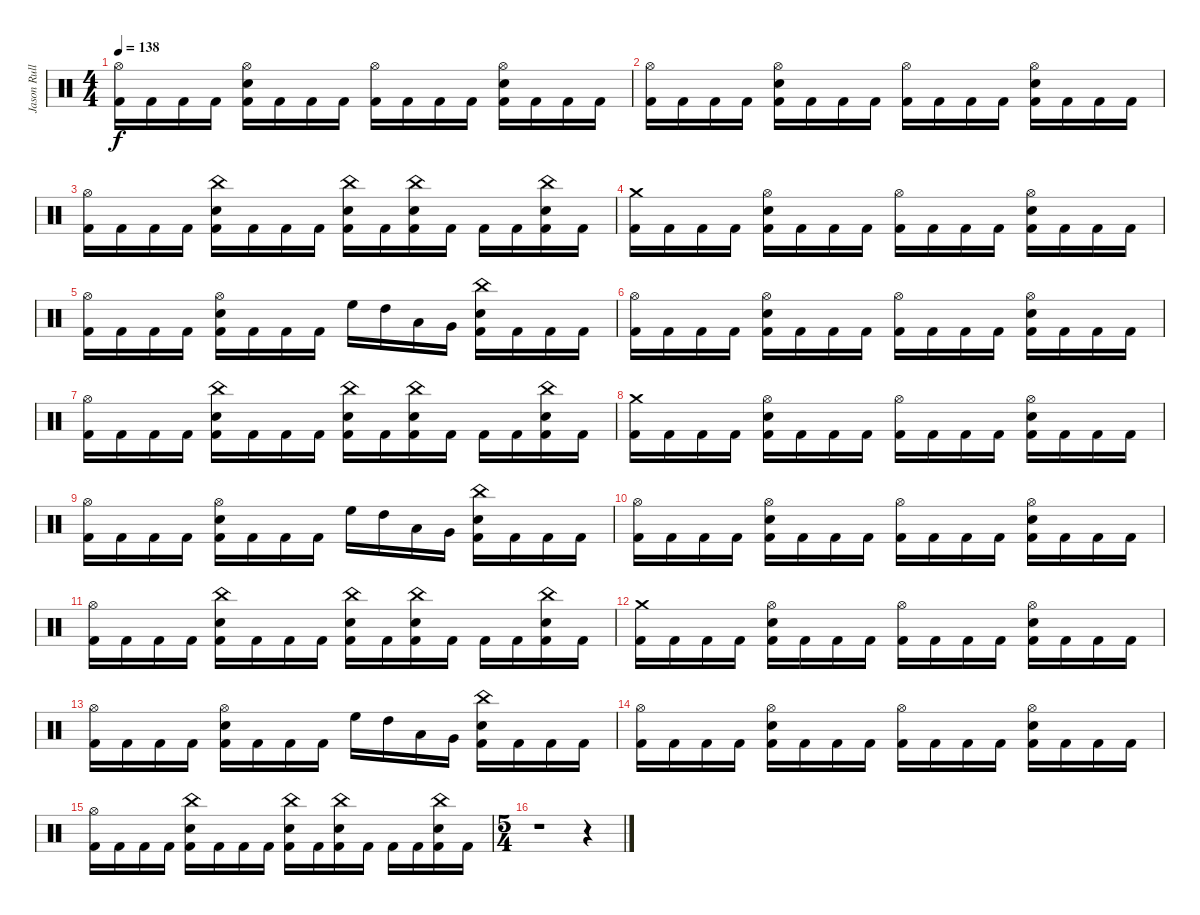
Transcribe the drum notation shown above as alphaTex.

\track ("Jason Rullo" "Jason Rull") {instrument percussion}
\staff {score}
\articulation defaults
\ts (4 4)
\tempo 138
\clef neutral
\ks c
("Hi-Hat (open)" "Kick (hit) 2").16{dy f} "Kick (hit) 2".16 "Kick (hit) 2".16 "Kick (hit) 2".16 ("Hi-Hat (open)" "Electric Snare (hit)" "Kick (hit) 2").16 "Kick (hit) 2".16 "Kick (hit) 2".16 "Kick (hit) 2".16 ("Hi-Hat (open)" "Kick (hit) 2").16 "Kick (hit) 2".16 "Kick (hit) 2".16 "Kick (hit) 2".16 ("Hi-Hat (open)" "Electric Snare (hit)" "Kick (hit) 2").16 "Kick (hit) 2".16 "Kick (hit) 2".16 "Kick (hit) 2".16 |
("Hi-Hat (open)" "Kick (hit) 2").16 "Kick (hit) 2".16 "Kick (hit) 2".16 "Kick (hit) 2".16 ("Hi-Hat (open)" "Electric Snare (hit)" "Kick (hit) 2").16 "Kick (hit) 2".16 "Kick (hit) 2".16 "Kick (hit) 2".16 ("Hi-Hat (open)" "Kick (hit) 2").16 "Kick (hit) 2".16 "Kick (hit) 2".16 "Kick (hit) 2".16 ("Hi-Hat (open)" "Electric Snare (hit)" "Kick (hit) 2").16 "Kick (hit) 2".16 "Kick (hit) 2".16 "Kick (hit) 2".16 |
("Hi-Hat (open)" "Kick (hit) 2").16 "Kick (hit) 2".16 "Kick (hit) 2".16 "Kick (hit) 2".16 ("China (hit)" "Electric Snare (hit)" "Kick (hit) 2").16 "Kick (hit) 2".16 "Kick (hit) 2".16 "Kick (hit) 2".16 ("China (hit)" "Electric Snare (hit)" "Kick (hit) 2").16 "Kick (hit) 2".16 ("China (hit)" "Electric Snare (hit)" "Kick (hit) 2").16 "Kick (hit) 2".16 "Kick (hit) 2".16 "Kick (hit) 2".16 ("China (hit)" "Electric Snare (hit)" "Kick (hit) 2").16 "Kick (hit) 2".16 |
("Kick (hit) 2" "Crash medium (hit)").16 "Kick (hit) 2".16 "Kick (hit) 2".16 "Kick (hit) 2".16 ("Hi-Hat (open)" "Electric Snare (hit)" "Kick (hit) 2").16 "Kick (hit) 2".16 "Kick (hit) 2".16 "Kick (hit) 2".16 ("Hi-Hat (open)" "Kick (hit) 2").16 "Kick (hit) 2".16 "Kick (hit) 2".16 "Kick (hit) 2".16 ("Hi-Hat (open)" "Electric Snare (hit)" "Kick (hit) 2").16 "Kick (hit) 2".16 "Kick (hit) 2".16 "Kick (hit) 2".16 |
("Hi-Hat (open)" "Kick (hit) 2").16 "Kick (hit) 2".16 "Kick (hit) 2".16 "Kick (hit) 2".16 ("Hi-Hat (open)" "Electric Snare (hit)" "Kick (hit) 2").16 "Kick (hit) 2".16 "Kick (hit) 2".16 "Kick (hit) 2".16 "High Floor Tom (hit)".16 "High Tom (hit)".16 "Low Tom (hit)".16 "Very Low Tom (hit)".16 ("China (hit)" "Electric Snare (hit)" "Kick (hit) 2").16 "Kick (hit) 2".16 "Kick (hit) 2".16 "Kick (hit) 2".16 |
("Hi-Hat (open)" "Kick (hit) 2").16 "Kick (hit) 2".16 "Kick (hit) 2".16 "Kick (hit) 2".16 ("Hi-Hat (open)" "Electric Snare (hit)" "Kick (hit) 2").16 "Kick (hit) 2".16 "Kick (hit) 2".16 "Kick (hit) 2".16 ("Hi-Hat (open)" "Kick (hit) 2").16 "Kick (hit) 2".16 "Kick (hit) 2".16 "Kick (hit) 2".16 ("Hi-Hat (open)" "Electric Snare (hit)" "Kick (hit) 2").16 "Kick (hit) 2".16 "Kick (hit) 2".16 "Kick (hit) 2".16 |
("Hi-Hat (open)" "Kick (hit) 2").16 "Kick (hit) 2".16 "Kick (hit) 2".16 "Kick (hit) 2".16 ("China (hit)" "Electric Snare (hit)" "Kick (hit) 2").16 "Kick (hit) 2".16 "Kick (hit) 2".16 "Kick (hit) 2".16 ("China (hit)" "Electric Snare (hit)" "Kick (hit) 2").16 "Kick (hit) 2".16 ("China (hit)" "Electric Snare (hit)" "Kick (hit) 2").16 "Kick (hit) 2".16 "Kick (hit) 2".16 "Kick (hit) 2".16 ("China (hit)" "Electric Snare (hit)" "Kick (hit) 2").16 "Kick (hit) 2".16 |
("Kick (hit) 2" "Crash medium (hit)").16 "Kick (hit) 2".16 "Kick (hit) 2".16 "Kick (hit) 2".16 ("Hi-Hat (open)" "Electric Snare (hit)" "Kick (hit) 2").16 "Kick (hit) 2".16 "Kick (hit) 2".16 "Kick (hit) 2".16 ("Hi-Hat (open)" "Kick (hit) 2").16 "Kick (hit) 2".16 "Kick (hit) 2".16 "Kick (hit) 2".16 ("Hi-Hat (open)" "Electric Snare (hit)" "Kick (hit) 2").16 "Kick (hit) 2".16 "Kick (hit) 2".16 "Kick (hit) 2".16 |
("Hi-Hat (open)" "Kick (hit) 2").16 "Kick (hit) 2".16 "Kick (hit) 2".16 "Kick (hit) 2".16 ("Hi-Hat (open)" "Electric Snare (hit)" "Kick (hit) 2").16 "Kick (hit) 2".16 "Kick (hit) 2".16 "Kick (hit) 2".16 "High Floor Tom (hit)".16 "High Tom (hit)".16 "Low Tom (hit)".16 "Very Low Tom (hit)".16 ("China (hit)" "Electric Snare (hit)" "Kick (hit) 2").16 "Kick (hit) 2".16 "Kick (hit) 2".16 "Kick (hit) 2".16 |
("Hi-Hat (open)" "Kick (hit) 2").16 "Kick (hit) 2".16 "Kick (hit) 2".16 "Kick (hit) 2".16 ("Hi-Hat (open)" "Electric Snare (hit)" "Kick (hit) 2").16 "Kick (hit) 2".16 "Kick (hit) 2".16 "Kick (hit) 2".16 ("Hi-Hat (open)" "Kick (hit) 2").16 "Kick (hit) 2".16 "Kick (hit) 2".16 "Kick (hit) 2".16 ("Hi-Hat (open)" "Electric Snare (hit)" "Kick (hit) 2").16 "Kick (hit) 2".16 "Kick (hit) 2".16 "Kick (hit) 2".16 |
("Hi-Hat (open)" "Kick (hit) 2").16 "Kick (hit) 2".16 "Kick (hit) 2".16 "Kick (hit) 2".16 ("China (hit)" "Electric Snare (hit)" "Kick (hit) 2").16 "Kick (hit) 2".16 "Kick (hit) 2".16 "Kick (hit) 2".16 ("China (hit)" "Electric Snare (hit)" "Kick (hit) 2").16 "Kick (hit) 2".16 ("China (hit)" "Electric Snare (hit)" "Kick (hit) 2").16 "Kick (hit) 2".16 "Kick (hit) 2".16 "Kick (hit) 2".16 ("China (hit)" "Electric Snare (hit)" "Kick (hit) 2").16 "Kick (hit) 2".16 |
("Kick (hit) 2" "Crash medium (hit)").16{volume 16} "Kick (hit) 2".16{volume 16} "Kick (hit) 2".16{volume 15} "Kick (hit) 2".16{volume 15} ("Hi-Hat (open)" "Electric Snare (hit)" "Kick (hit) 2").16{volume 15} "Kick (hit) 2".16{volume 15} "Kick (hit) 2".16{volume 14} "Kick (hit) 2".16{volume 14} ("Hi-Hat (open)" "Kick (hit) 2").16{volume 14} "Kick (hit) 2".16{volume 14} "Kick (hit) 2".16{volume 14} "Kick (hit) 2".16{volume 13} ("Hi-Hat (open)" "Electric Snare (hit)" "Kick (hit) 2").16{volume 13} "Kick (hit) 2".16{volume 13} "Kick (hit) 2".16{volume 12} "Kick (hit) 2".16{volume 12} |
("Hi-Hat (open)" "Kick (hit) 2").16{volume 12} "Kick (hit) 2".16{volume 12} "Kick (hit) 2".16{volume 12} "Kick (hit) 2".16{volume 11} ("Hi-Hat (open)" "Electric Snare (hit)" "Kick (hit) 2").16{volume 11} "Kick (hit) 2".16{volume 11} "Kick (hit) 2".16{volume 10} "Kick (hit) 2".16{volume 10} "High Floor Tom (hit)".16{volume 10} "High Tom (hit)".16{volume 10} "Low Tom (hit)".16{volume 10} "Very Low Tom (hit)".16{volume 9} ("China (hit)" "Electric Snare (hit)" "Kick (hit) 2").16{volume 9} "Kick (hit) 2".16{volume 9} "Kick (hit) 2".16{volume 8} "Kick (hit) 2".16{volume 8} |
("Hi-Hat (open)" "Kick (hit) 2").16{volume 8} "Kick (hit) 2".16{volume 8} "Kick (hit) 2".16{volume 8} "Kick (hit) 2".16{volume 7} ("Hi-Hat (open)" "Electric Snare (hit)" "Kick (hit) 2").16{volume 7} "Kick (hit) 2".16{volume 7} "Kick (hit) 2".16{volume 6} "Kick (hit) 2".16{volume 6} ("Hi-Hat (open)" "Kick (hit) 2").16{volume 6} "Kick (hit) 2".16{volume 6} "Kick (hit) 2".16{volume 6} "Kick (hit) 2".16{volume 5} ("Hi-Hat (open)" "Electric Snare (hit)" "Kick (hit) 2").16{volume 5} "Kick (hit) 2".16{volume 5} "Kick (hit) 2".16{volume 4} "Kick (hit) 2".16{volume 4} |
("Hi-Hat (open)" "Kick (hit) 2").16{volume 4} "Kick (hit) 2".16{volume 4} "Kick (hit) 2".16{volume 4} "Kick (hit) 2".16{volume 3} ("China (hit)" "Electric Snare (hit)" "Kick (hit) 2").16{volume 3} "Kick (hit) 2".16{volume 3} "Kick (hit) 2".16{volume 2} "Kick (hit) 2".16{volume 2} ("China (hit)" "Electric Snare (hit)" "Kick (hit) 2").16{volume 2} "Kick (hit) 2".16{volume 2} ("China (hit)" "Electric Snare (hit)" "Kick (hit) 2").16{volume 2} "Kick (hit) 2".16{volume 1} "Kick (hit) 2".16{volume 1} "Kick (hit) 2".16{volume 1} ("China (hit)" "Electric Snare (hit)" "Kick (hit) 2").16{volume 0} "Kick (hit) 2".16{volume 0} |
\ts (5 4)
r.1 r.4
